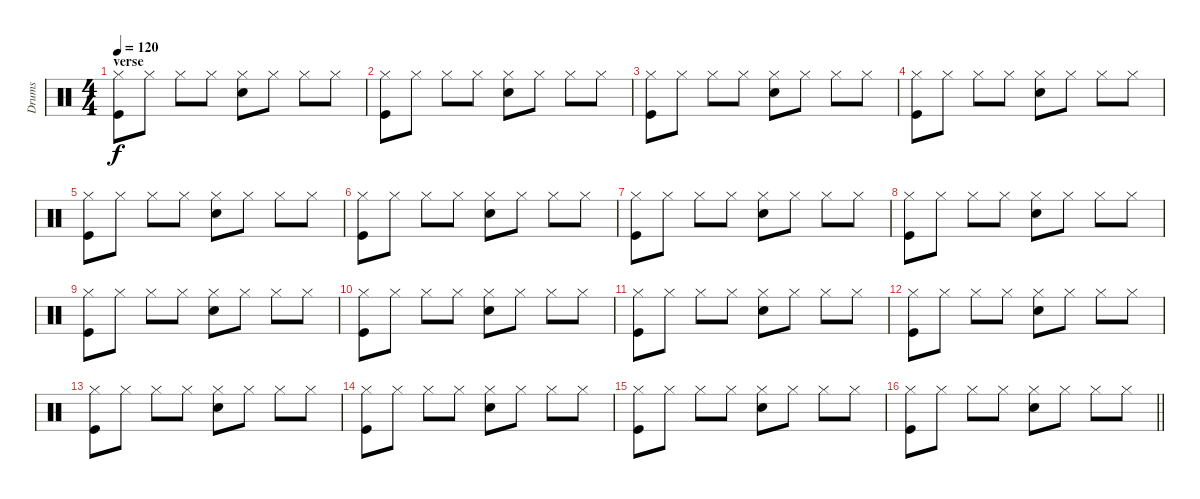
\track ("Drums" "Drums") {instrument percussion}
\staff {score}
\articulation defaults
\ts (4 4)
\section ("" "verse ")
\tempo 120
\clef neutral
\ks c
("Hi-Hat (closed)" "Kick (hit)").8{dy f} "Hi-Hat (closed)".8 "Hi-Hat (closed)".8 "Hi-Hat (closed)".8 ("Hi-Hat (closed)" "Snare (hit) 2").8 "Hi-Hat (closed)".8 "Hi-Hat (closed)".8 "Hi-Hat (closed)".8 |
("Hi-Hat (closed)" "Kick (hit)").8 "Hi-Hat (closed)".8 "Hi-Hat (closed)".8 "Hi-Hat (closed)".8 ("Hi-Hat (closed)" "Snare (hit) 2").8 "Hi-Hat (closed)".8 "Hi-Hat (closed)".8 "Hi-Hat (closed)".8 |
("Hi-Hat (closed)" "Kick (hit)").8 "Hi-Hat (closed)".8 "Hi-Hat (closed)".8 "Hi-Hat (closed)".8 ("Hi-Hat (closed)" "Snare (hit) 2").8 "Hi-Hat (closed)".8 "Hi-Hat (closed)".8 "Hi-Hat (closed)".8 |
("Hi-Hat (closed)" "Kick (hit)").8 "Hi-Hat (closed)".8 "Hi-Hat (closed)".8 "Hi-Hat (closed)".8 ("Hi-Hat (closed)" "Snare (hit) 2").8 "Hi-Hat (closed)".8 "Hi-Hat (closed)".8 "Hi-Hat (closed)".8 |
("Hi-Hat (closed)" "Kick (hit)").8 "Hi-Hat (closed)".8 "Hi-Hat (closed)".8 "Hi-Hat (closed)".8 ("Hi-Hat (closed)" "Snare (hit) 2").8 "Hi-Hat (closed)".8 "Hi-Hat (closed)".8 "Hi-Hat (closed)".8 |
("Hi-Hat (closed)" "Kick (hit)").8 "Hi-Hat (closed)".8 "Hi-Hat (closed)".8 "Hi-Hat (closed)".8 ("Hi-Hat (closed)" "Snare (hit) 2").8 "Hi-Hat (closed)".8 "Hi-Hat (closed)".8 "Hi-Hat (closed)".8 |
("Hi-Hat (closed)" "Kick (hit)").8 "Hi-Hat (closed)".8 "Hi-Hat (closed)".8 "Hi-Hat (closed)".8 ("Hi-Hat (closed)" "Snare (hit) 2").8 "Hi-Hat (closed)".8 "Hi-Hat (closed)".8 "Hi-Hat (closed)".8 |
("Hi-Hat (closed)" "Kick (hit)").8 "Hi-Hat (closed)".8 "Hi-Hat (closed)".8 "Hi-Hat (closed)".8 ("Hi-Hat (closed)" "Snare (hit) 2").8 "Hi-Hat (closed)".8 "Hi-Hat (closed)".8 "Hi-Hat (closed)".8 |
("Hi-Hat (closed)" "Kick (hit)").8 "Hi-Hat (closed)".8 "Hi-Hat (closed)".8 "Hi-Hat (closed)".8 ("Hi-Hat (closed)" "Snare (hit) 2").8 "Hi-Hat (closed)".8 "Hi-Hat (closed)".8 "Hi-Hat (closed)".8 |
("Hi-Hat (closed)" "Kick (hit)").8 "Hi-Hat (closed)".8 "Hi-Hat (closed)".8 "Hi-Hat (closed)".8 ("Hi-Hat (closed)" "Snare (hit) 2").8 "Hi-Hat (closed)".8 "Hi-Hat (closed)".8 "Hi-Hat (closed)".8 |
("Hi-Hat (closed)" "Kick (hit)").8 "Hi-Hat (closed)".8 "Hi-Hat (closed)".8 "Hi-Hat (closed)".8 ("Hi-Hat (closed)" "Snare (hit) 2").8 "Hi-Hat (closed)".8 "Hi-Hat (closed)".8 "Hi-Hat (closed)".8 |
("Hi-Hat (closed)" "Kick (hit)").8 "Hi-Hat (closed)".8 "Hi-Hat (closed)".8 "Hi-Hat (closed)".8 ("Hi-Hat (closed)" "Snare (hit) 2").8 "Hi-Hat (closed)".8 "Hi-Hat (closed)".8 "Hi-Hat (closed)".8 |
("Hi-Hat (closed)" "Kick (hit)").8 "Hi-Hat (closed)".8 "Hi-Hat (closed)".8 "Hi-Hat (closed)".8 ("Hi-Hat (closed)" "Snare (hit) 2").8 "Hi-Hat (closed)".8 "Hi-Hat (closed)".8 "Hi-Hat (closed)".8 |
("Hi-Hat (closed)" "Kick (hit)").8 "Hi-Hat (closed)".8 "Hi-Hat (closed)".8 "Hi-Hat (closed)".8 ("Hi-Hat (closed)" "Snare (hit) 2").8 "Hi-Hat (closed)".8 "Hi-Hat (closed)".8 "Hi-Hat (closed)".8 |
("Hi-Hat (closed)" "Kick (hit)").8 "Hi-Hat (closed)".8 "Hi-Hat (closed)".8 "Hi-Hat (closed)".8 ("Hi-Hat (closed)" "Snare (hit) 2").8 "Hi-Hat (closed)".8 "Hi-Hat (closed)".8 "Hi-Hat (closed)".8 |
\barLineRight lightlight
("Hi-Hat (closed)" "Kick (hit)").8 "Hi-Hat (closed)".8 "Hi-Hat (closed)".8 "Hi-Hat (closed)".8 ("Hi-Hat (closed)" "Snare (hit) 2").8 "Hi-Hat (closed)".8 "Hi-Hat (closed)".8 "Hi-Hat (closed)".8
